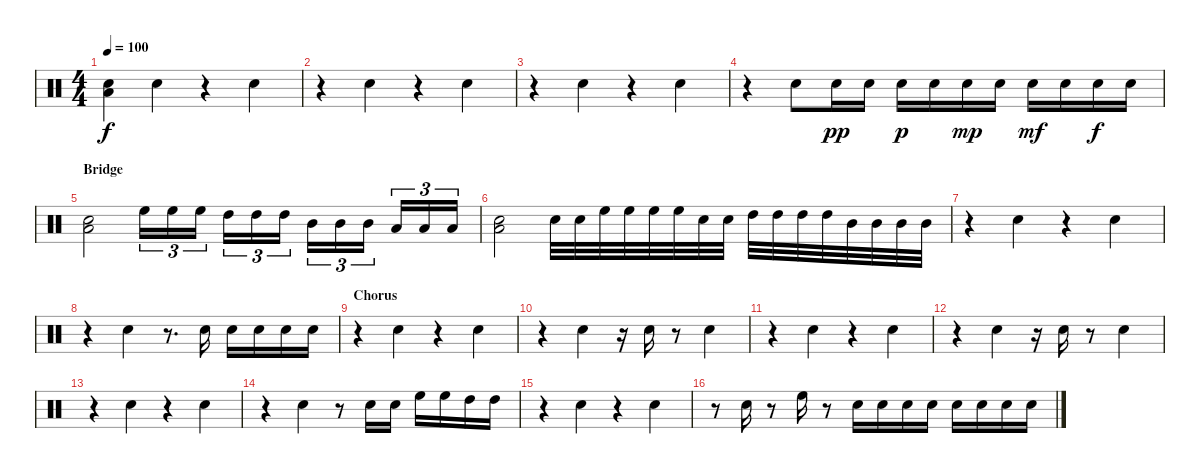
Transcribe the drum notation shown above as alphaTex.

\track "" {instrument percussion}
\staff {score}
\articulation defaults
\ts (4 4)
\tempo 100
\clef neutral
\ks c
("Low Tom (hit)" "Electric Snare (hit)").4{dy f} "Electric Snare (hit)".4 r.4 "Electric Snare (hit)".4 |
r.4 "Electric Snare (hit)".4 r.4 "Electric Snare (hit)".4 |
r.4 "Electric Snare (hit)".4 r.4 "Electric Snare (hit)".4 |
r.4 "Electric Snare (hit)".8 "Electric Snare (hit)".16{dy pp} "Electric Snare (hit)".16 "Electric Snare (hit)".16{dy p} "Electric Snare (hit)".16 "Electric Snare (hit)".16{dy mp} "Electric Snare (hit)".16 "Electric Snare (hit)".16{dy mf} "Electric Snare (hit)".16 "Electric Snare (hit)".16{dy f} "Electric Snare (hit)".16 |
\section ("" "Bridge")
("Low Tom (hit)" "Electric Snare (hit)").2 "High Floor Tom (hit)".16{tu (3 2)} "High Floor Tom (hit)".16{tu (3 2)} "High Floor Tom (hit)".16{tu (3 2)} "High Tom (hit)".16{tu (3 2)} "High Tom (hit)".16{tu (3 2)} "High Tom (hit)".16{tu (3 2)} "Mid Tom (hit)".16{tu (3 2)} "Mid Tom (hit)".16{tu (3 2)} "Mid Tom (hit)".16{tu (3 2)} "Low Tom (hit)".16{tu (3 2)} "Low Tom (hit)".16{tu (3 2)} "Low Tom (hit)".16{tu (3 2)} |
("Low Tom (hit)" "Electric Snare (hit)").2 "Electric Snare (hit)".32 "Electric Snare (hit)".32 "High Floor Tom (hit)".32 "High Floor Tom (hit)".32 "High Floor Tom (hit)".32 "High Floor Tom (hit)".32 "Electric Snare (hit)".32 "Electric Snare (hit)".32 "High Tom (hit)".32 "High Tom (hit)".32 "High Tom (hit)".32 "High Tom (hit)".32 "Mid Tom (hit)".32 "Mid Tom (hit)".32 "Mid Tom (hit)".32 "Mid Tom (hit)".32 |
r.4 "Electric Snare (hit)".4 r.4 "Electric Snare (hit)".4 |
r.4 "Electric Snare (hit)".4 r.8{d} "Electric Snare (hit)".16 "Electric Snare (hit)".16 "Electric Snare (hit)".16 "Electric Snare (hit)".16 "Electric Snare (hit)".16 |
\section ("" "Chorus")
r.4 "Electric Snare (hit)".4 r.4 "Electric Snare (hit)".4 |
r.4 "Electric Snare (hit)".4 r.16 "Electric Snare (hit)".16 r.8 "Electric Snare (hit)".4 |
r.4 "Electric Snare (hit)".4 r.4 "Electric Snare (hit)".4 |
r.4 "Electric Snare (hit)".4 r.16 "Electric Snare (hit)".16 r.8 "Electric Snare (hit)".4 |
r.4 "Electric Snare (hit)".4 r.4 "Electric Snare (hit)".4 |
r.4 "Electric Snare (hit)".4 r.8 "Electric Snare (hit)".16 "Electric Snare (hit)".16 "High Floor Tom (hit)".16 "High Floor Tom (hit)".16 "High Tom (hit)".16 "High Tom (hit)".16 |
r.4 "Electric Snare (hit)".4 r.4 "Electric Snare (hit)".4 |
r.8 "Electric Snare (hit)".16 r.8 "High Floor Tom (hit)".16 r.8 "Electric Snare (hit)".16 "Electric Snare (hit)".16 "Electric Snare (hit)".16 "Electric Snare (hit)".16 "Electric Snare (hit)".16 "Electric Snare (hit)".16 "Electric Snare (hit)".16 "Electric Snare (hit)".16
